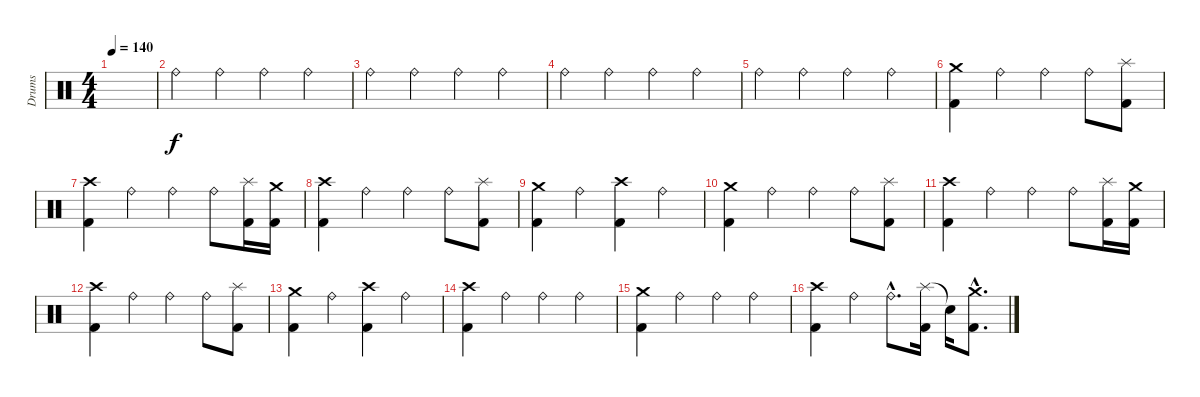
\track ("Drums" "Drums") {instrument percussion}
\staff {score}
\articulation defaults
\ts (4 4)
\tempo 140
\tempo 74
\tempo 140
\clef neutral
\ks c
|
"Ride (bell)".4 "Ride (bell)".4 "Ride (bell)".4 "Ride (bell)".4 |
"Ride (bell)".4 "Ride (bell)".4 "Ride (bell)".4 "Ride (bell)".4 |
"Ride (bell)".4 "Ride (bell)".4 "Ride (bell)".4 "Ride (bell)".4 |
"Ride (bell)".4 "Ride (bell)".4 "Ride (bell)".4 "Ride (bell)".4 |
("Crash medium (hit)" "Kick (hit) 2").4 "Ride (bell)".4 "Ride (bell)".4 "Ride (bell)".8 ("Splash (hit)" "Kick (hit) 2").8 |
("Crash high (hit)" "Kick (hit) 2").4 "Ride (bell)".4 "Ride (bell)".4 "Ride (bell)".8 ("Splash (hit)" "Kick (hit) 2").16 ("Crash medium (hit)" "Kick (hit) 2").16 |
("Crash high (hit)" "Kick (hit) 2").4 "Ride (bell)".4 "Ride (bell)".4 "Ride (bell)".8 ("Splash (hit)" "Kick (hit) 2").8 |
("Crash medium (hit)" "Kick (hit) 2").4 "Ride (bell)".4 ("Crash high (hit)" "Kick (hit) 2").4 "Ride (bell)".4 |
("Crash medium (hit)" "Kick (hit) 2").4 "Ride (bell)".4 "Ride (bell)".4 "Ride (bell)".8 ("Splash (hit)" "Kick (hit) 2").8 |
("Crash high (hit)" "Kick (hit) 2").4 "Ride (bell)".4 "Ride (bell)".4 "Ride (bell)".8 ("Splash (hit)" "Kick (hit) 2").16 ("Crash medium (hit)" "Kick (hit) 2").16 |
("Crash high (hit)" "Kick (hit) 2").4 "Ride (bell)".4 "Ride (bell)".4 "Ride (bell)".8 ("Splash (hit)" "Kick (hit) 2").8 |
("Crash medium (hit)" "Kick (hit) 2").4 "Ride (bell)".4 ("Crash high (hit)" "Kick (hit) 2").4 "Ride (bell)".4 |
("Crash high (hit)" "Kick (hit) 2").4 "Ride (bell)".4 "Ride (bell)".4 "Ride (bell)".4 |
("Crash medium (hit)" "Kick (hit) 2").4 "Ride (bell)".4 "Ride (bell)".4 "Ride (bell)".4 |
("Crash high (hit)" "Kick (hit) 2").4 "Ride (bell)".4 "Ride (bell)"{hac}.8{d} ("Splash (hit)" "Kick (hit) 2").16 "Snare (hit)"{t}.16 ("Crash medium (hit)"{hac} "Kick (hit) 2"{hac}).8{d}
